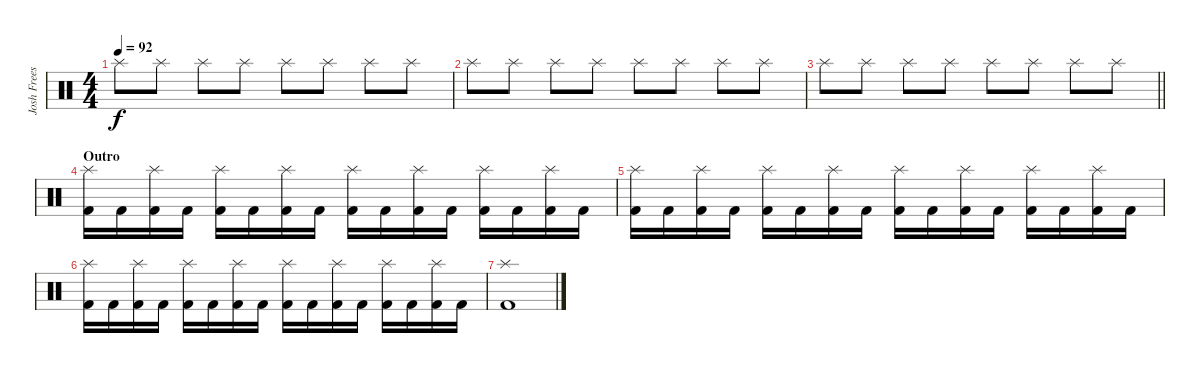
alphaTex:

\track ("Josh Freese (Studio Drummer)" "Josh Frees") {instrument percussion}
\staff {score}
\articulation defaults
\ts (4 4)
\tempo 92
\clef neutral
\ks c "Splash (hit)".8{dy f} "Splash (hit)".8 "Splash (hit)".8 "Splash (hit)".8 "Splash (hit)".8 "Splash (hit)".8 "Splash (hit)".8 "Splash (hit)".8
|
"Splash (hit)".8 "Splash (hit)".8 "Splash (hit)".8 "Splash (hit)".8 "Splash (hit)".8 "Splash (hit)".8 "Splash (hit)".8 "Splash (hit)".8 |
\barLineRight lightlight "Splash (hit)".8 "Splash (hit)".8 "Splash (hit)".8 "Splash (hit)".8 "Splash (hit)".8 "Splash (hit)".8 "Splash (hit)".8 "Splash (hit)".8
|
\section ("" "Outro")
("Splash (hit)" "Kick (hit) 2").16 "Kick (hit) 2".16 ("Splash (hit)" "Kick (hit) 2").16 "Kick (hit) 2".16 ("Splash (hit)" "Kick (hit) 2").16 "Kick (hit) 2".16 ("Splash (hit)" "Kick (hit) 2").16 "Kick (hit) 2".16 ("Splash (hit)" "Kick (hit) 2").16 "Kick (hit) 2".16 ("Splash (hit)" "Kick (hit) 2").16 "Kick (hit) 2".16 ("Splash (hit)" "Kick (hit) 2").16 "Kick (hit) 2".16 ("Splash (hit)" "Kick (hit) 2").16 "Kick (hit) 2".16 |
("Splash (hit)" "Kick (hit) 2").16 "Kick (hit) 2".16 ("Splash (hit)" "Kick (hit) 2").16 "Kick (hit) 2".16 ("Splash (hit)" "Kick (hit) 2").16 "Kick (hit) 2".16 ("Splash (hit)" "Kick (hit) 2").16 "Kick (hit) 2".16 ("Splash (hit)" "Kick (hit) 2").16 "Kick (hit) 2".16 ("Splash (hit)" "Kick (hit) 2").16 "Kick (hit) 2".16 ("Splash (hit)" "Kick (hit) 2").16 "Kick (hit) 2".16 ("Splash (hit)" "Kick (hit) 2").16 "Kick (hit) 2".16 |
("Splash (hit)" "Kick (hit) 2").16 "Kick (hit) 2".16 ("Splash (hit)" "Kick (hit) 2").16 "Kick (hit) 2".16 ("Splash (hit)" "Kick (hit) 2").16 "Kick (hit) 2".16 ("Splash (hit)" "Kick (hit) 2").16 "Kick (hit) 2".16 ("Splash (hit)" "Kick (hit) 2").16 "Kick (hit) 2".16 ("Splash (hit)" "Kick (hit) 2").16 "Kick (hit) 2".16 ("Splash (hit)" "Kick (hit) 2").16 "Kick (hit) 2".16 ("Splash (hit)" "Kick (hit) 2").16 "Kick (hit) 2".16 |
("Splash (hit)" "Kick (hit) 2").1
